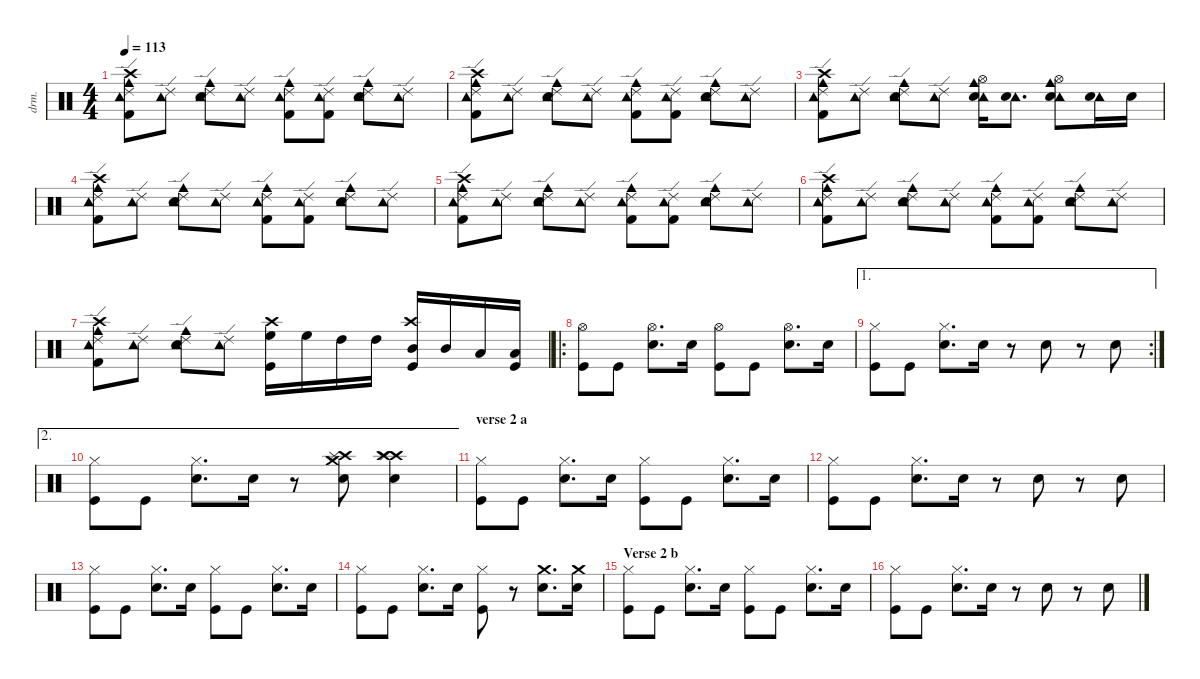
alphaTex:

\defaultSystemsLayout 4
\hideDynamics
\bracketExtendMode nobrackets
\otherSystemsTrackNameOrientation horizontal
\track ("Rockey" "drm.") {instrument percussion}
\staff {score}
\articulation defaults
\ts (4 4)
\tempo 113
\clef neutral
\ks c
("Ride (edge) 2" "Crash high (hit)" "Cowbell medium (hit)" "Kick (hit) 2" "Tambourine (hit)").8{dy f beam Down} ("Ride (edge) 2" "Tambourine (hit)").8{beam Down} ("Ride (edge) 2" "Cowbell medium (hit)" "Snare (hit) 2" "Tambourine (hit)").8{beam Down} ("Ride (edge) 2" "Tambourine (hit)").8{beam Down} ("Ride (edge) 2" "Cowbell medium (hit)" "Kick (hit) 2" "Tambourine (hit)").8{beam Down} ("Ride (edge) 2" "Kick (hit) 2" "Tambourine (hit)").8{beam Down} ("Ride (edge) 2" "Cowbell medium (hit)" "Snare (hit) 2" "Tambourine (hit)").8{beam Down} ("Ride (edge) 2" "Tambourine (hit)").8{beam Down} |
("Ride (edge) 2" "Crash high (hit)" "Cowbell medium (hit)" "Kick (hit) 2" "Tambourine (hit)").8{beam Down} ("Ride (edge) 2" "Tambourine (hit)").8{beam Down} ("Ride (edge) 2" "Cowbell medium (hit)" "Snare (hit) 2" "Tambourine (hit)").8{beam Down} ("Ride (edge) 2" "Tambourine (hit)").8{beam Down} ("Ride (edge) 2" "Cowbell medium (hit)" "Kick (hit) 2" "Tambourine (hit)").8{beam Down} ("Ride (edge) 2" "Kick (hit) 2" "Tambourine (hit)").8{beam Down} ("Ride (edge) 2" "Cowbell medium (hit)" "Snare (hit) 2" "Tambourine (hit)").8{beam Down} ("Ride (edge) 2" "Tambourine (hit)").8{beam Down} |
("Ride (edge) 2" "Crash high (hit)" "Cowbell medium (hit)" "Kick (hit) 2" "Tambourine (hit)").8{beam Down} ("Ride (edge) 2" "Tambourine (hit)").8{beam Down} ("Ride (edge) 2" "Cowbell medium (hit)" "Snare (hit) 2" "Tambourine (hit)").8{beam Down} ("Ride (edge) 2" "Tambourine (hit)").8{beam Down} ("Hi-Hat (open)" "Tambourine (hit)" "Cowbell medium (hit)" "Snare (hit) 2").16{beam Down} ("Tambourine (hit)" "Snare (hit) 2").8{d beam Down} ("Hi-Hat (open)" "Tambourine (hit)" "Cowbell medium (hit)" "Snare (hit) 2").8{beam Down} ("Tambourine (hit)" "Snare (hit) 2").16{beam Down} "Snare (hit) 2".16{beam Down} |
("Ride (edge) 2" "Crash high (hit)" "Cowbell medium (hit)" "Kick (hit) 2" "Tambourine (hit)").8{beam Down} ("Ride (edge) 2" "Tambourine (hit)").8{beam Down} ("Ride (edge) 2" "Cowbell medium (hit)" "Snare (hit) 2" "Tambourine (hit)").8{beam Down} ("Ride (edge) 2" "Tambourine (hit)").8{beam Down} ("Ride (edge) 2" "Cowbell medium (hit)" "Kick (hit) 2" "Tambourine (hit)").8{beam Down} ("Ride (edge) 2" "Kick (hit) 2" "Tambourine (hit)").8{beam Down} ("Ride (edge) 2" "Cowbell medium (hit)" "Snare (hit) 2" "Tambourine (hit)").8{beam Down} ("Ride (edge) 2" "Tambourine (hit)").8{beam Down} |
("Ride (edge) 2" "Crash high (hit)" "Cowbell medium (hit)" "Kick (hit) 2" "Tambourine (hit)").8{beam Down} ("Ride (edge) 2" "Tambourine (hit)").8{beam Down} ("Ride (edge) 2" "Cowbell medium (hit)" "Snare (hit) 2" "Tambourine (hit)").8{beam Down} ("Ride (edge) 2" "Tambourine (hit)").8{beam Down} ("Ride (edge) 2" "Cowbell medium (hit)" "Kick (hit) 2" "Tambourine (hit)").8{beam Down} ("Ride (edge) 2" "Kick (hit) 2" "Tambourine (hit)").8{beam Down} ("Ride (edge) 2" "Cowbell medium (hit)" "Snare (hit) 2" "Tambourine (hit)").8{beam Down} ("Ride (edge) 2" "Tambourine (hit)").8{beam Down} |
("Ride (edge) 2" "Crash high (hit)" "Cowbell medium (hit)" "Kick (hit) 2" "Tambourine (hit)").8{beam Down} ("Ride (edge) 2" "Tambourine (hit)").8{beam Down} ("Ride (edge) 2" "Cowbell medium (hit)" "Snare (hit) 2" "Tambourine (hit)").8{beam Down} ("Ride (edge) 2" "Tambourine (hit)").8{beam Down} ("Ride (edge) 2" "Cowbell medium (hit)" "Kick (hit) 2" "Tambourine (hit)").8{beam Down} ("Ride (edge) 2" "Kick (hit) 2" "Tambourine (hit)").8{beam Down} ("Ride (edge) 2" "Cowbell medium (hit)" "Snare (hit) 2" "Tambourine (hit)").8{beam Down} ("Ride (edge) 2" "Tambourine (hit)").8{beam Down} |
("Ride (edge) 2" "Crash high (hit)" "Cowbell medium (hit)" "Kick (hit) 2" "Tambourine (hit)").8{beam Down} ("Ride (edge) 2" "Tambourine (hit)").8{beam Down} ("Ride (edge) 2" "Cowbell medium (hit)" "Snare (hit) 2" "Tambourine (hit)").8{beam Down} ("Ride (edge) 2" "Tambourine (hit)").8{beam Down} ("Crash high (hit)" "High Floor Tom (hit)" "Kick (hit)").16{beam Down} "High Floor Tom (hit)".16{beam Down} "High Tom (hit)".16{beam Down} "High Tom (hit)".16{beam Down} ("Crash high (hit)" "Mid Tom (hit)" "Kick (hit)").16{beam Up} "Mid Tom (hit)".16{beam Up} "Low Tom (hit)".16{beam Up} ("Low Tom (hit)" "Kick (hit)").16{beam Up} |
\ro
("Hi-Hat (open)" "Kick (hit)").8{beam Down} "Kick (hit)".8{beam Down} ("Hi-Hat (open)" "Snare (hit) 2").8{d beam Down} "Snare (hit) 2".16{beam Down} ("Hi-Hat (open)" "Kick (hit)").8{beam Down} "Kick (hit)".8{beam Down} ("Hi-Hat (open)" "Snare (hit) 2").8{d beam Down} "Snare (hit) 2".16{beam Down} |
\ae 1
\rc 2
("Hi-Hat (closed)" "Kick (hit)").8{beam Down} "Kick (hit)".8{beam Down} ("Hi-Hat (closed)" "Snare (hit) 2").8{d beam Down} "Snare (hit) 2".16{beam Down} r.8{beam Down} "Snare (hit) 2".8{beam Down} r.8{beam Down} "Snare (hit) 2".8{beam Down} |
\ae 2
("Hi-Hat (closed)" "Kick (hit)").8{beam Down} "Kick (hit)".8{beam Down} ("Hi-Hat (closed)" "Snare (hit) 2").8{d beam Down} "Snare (hit) 2".16{beam Down} r.8{beam Down} ("Crash high (hit)" "Splash (hit)" "Crash medium (hit)" "Snare (hit) 2").8{beam Down} ("Crash high (hit)" "Splash (hit)" "Crash high (hit)" "Snare (hit) 2").4{beam Down} |
\section ("" "verse 2 a")
("Hi-Hat (closed)" "Kick (hit)").8{beam Down} "Kick (hit)".8{beam Down} ("Hi-Hat (closed)" "Snare (hit) 2").8{d beam Down} "Snare (hit) 2".16{beam Down} ("Hi-Hat (closed)" "Kick (hit)").8{beam Down} "Kick (hit)".8{beam Down} ("Hi-Hat (closed)" "Snare (hit) 2").8{d beam Down} "Snare (hit) 2".16{beam Down} |
("Hi-Hat (closed)" "Kick (hit)").8{beam Down} "Kick (hit)".8{beam Down} ("Hi-Hat (closed)" "Snare (hit) 2").8{d beam Down} "Snare (hit) 2".16{beam Down} r.8{beam Down} "Snare (hit) 2".8{beam Down} r.8{beam Down} "Snare (hit) 2".8{beam Down} |
("Hi-Hat (closed)" "Kick (hit)").8{beam Down} "Kick (hit)".8{beam Down} ("Hi-Hat (closed)" "Snare (hit) 2").8{d beam Down} "Snare (hit) 2".16{beam Down} ("Hi-Hat (closed)" "Kick (hit)").8{beam Down} "Kick (hit)".8{beam Down} ("Hi-Hat (closed)" "Snare (hit) 2").8{d beam Down} "Snare (hit) 2".16{beam Down} |
("Hi-Hat (closed)" "Kick (hit)").8{beam Down} "Kick (hit)".8{beam Down} ("Hi-Hat (closed)" "Snare (hit) 2").8{d beam Down} "Snare (hit) 2".16{beam Down} ("Hi-Hat (closed)" "Kick (hit)").8{beam Down} r.8{beam Down} ("Crash medium (hit)" "Snare (hit) 2").8{d beam Down} ("Crash medium (hit)" "Snare (hit) 2").16{beam Down} |
\section ("" "Verse 2 b")
("Hi-Hat (closed)" "Kick (hit)").8{beam Down} "Kick (hit)".8{beam Down} ("Hi-Hat (closed)" "Snare (hit) 2").8{d beam Down} "Snare (hit) 2".16{beam Down} ("Hi-Hat (closed)" "Kick (hit)").8{beam Down} "Kick (hit)".8{beam Down} ("Hi-Hat (closed)" "Snare (hit) 2").8{d beam Down} "Snare (hit) 2".16{beam Down} |
("Hi-Hat (closed)" "Kick (hit)").8{beam Down} "Kick (hit)".8{beam Down} ("Hi-Hat (closed)" "Snare (hit) 2").8{d beam Down} "Snare (hit) 2".16{beam Down} r.8{beam Down} "Snare (hit) 2".8{beam Down} r.8{beam Down} "Snare (hit) 2".8{beam Down}
